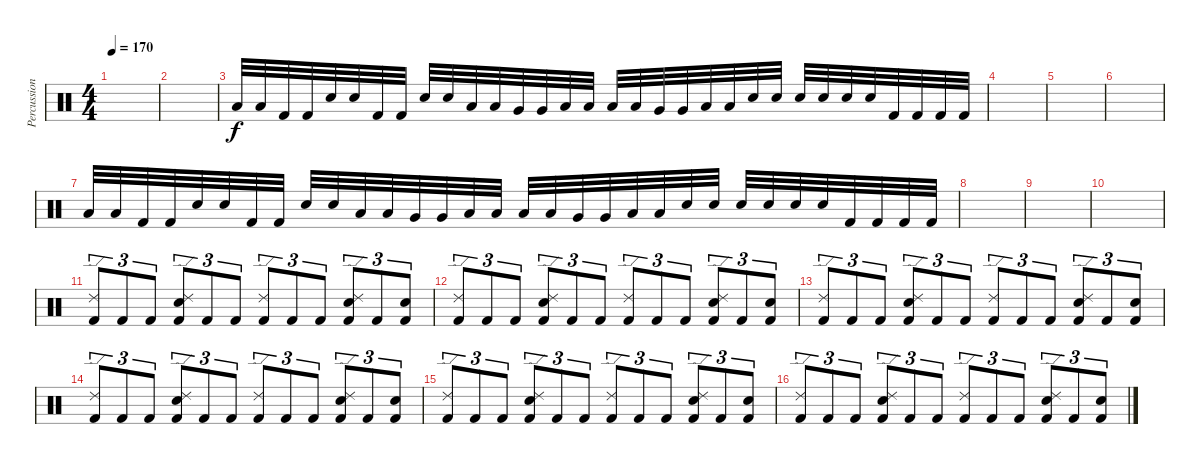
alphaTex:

\track ("Percussion" "Percussion") {instrument percussion}
\staff {score}
\articulation defaults
\ts (4 4)
\tempo 170
\clef neutral
\ks c
|
|
"Low Floor Tom (hit)".32 "Low Floor Tom (hit)".32 "Kick (hit) 2".32 "Kick (hit) 2".32 "Electric Snare (hit)".32 "Electric Snare (hit)".32 "Kick (hit) 2".32 "Kick (hit) 2".32 "Electric Snare (hit)".32 "Electric Snare (hit)".32 "Low Tom (hit)".32 "Low Tom (hit)".32 "Very Low Tom (hit)".32 "Very Low Tom (hit)".32 "Low Floor Tom (hit)".32 "Low Floor Tom (hit)".32 "Low Tom (hit)".32 "Low Tom (hit)".32 "Very Low Tom (hit)".32 "Very Low Tom (hit)".32 "Low Floor Tom (hit)".32 "Low Floor Tom (hit)".32 "Electric Snare (hit)".32 "Electric Snare (hit)".32 "Electric Snare (hit)".32 "Electric Snare (hit)".32 "Electric Snare (hit)".32 "Electric Snare (hit)".32 "Kick (hit) 2".32 "Kick (hit) 2".32 "Kick (hit) 2".32 "Kick (hit) 2".32 |
|
|
|
"Low Floor Tom (hit)".32 "Low Floor Tom (hit)".32 "Kick (hit) 2".32 "Kick (hit) 2".32 "Electric Snare (hit)".32 "Electric Snare (hit)".32 "Kick (hit) 2".32 "Kick (hit) 2".32 "Electric Snare (hit)".32 "Electric Snare (hit)".32 "Low Tom (hit)".32 "Low Tom (hit)".32 "Very Low Tom (hit)".32 "Very Low Tom (hit)".32 "Low Floor Tom (hit)".32 "Low Floor Tom (hit)".32 "Low Tom (hit)".32 "Low Tom (hit)".32 "Very Low Tom (hit)".32 "Very Low Tom (hit)".32 "Low Floor Tom (hit)".32 "Low Floor Tom (hit)".32 "Electric Snare (hit)".32 "Electric Snare (hit)".32 "Electric Snare (hit)".32 "Electric Snare (hit)".32 "Electric Snare (hit)".32 "Electric Snare (hit)".32 "Kick (hit) 2".32 "Kick (hit) 2".32 "Kick (hit) 2".32 "Kick (hit) 2".32 |
|
|
|
("Ride (edge) 2" "Kick (hit) 2").8{tu (3 2)} "Kick (hit) 2".8{tu (3 2)} "Kick (hit) 2".8{tu (3 2)} ("Ride (edge) 2" "Electric Snare (hit)" "Kick (hit) 2").8{tu (3 2)} "Kick (hit) 2".8{tu (3 2)} "Kick (hit) 2".8{tu (3 2)} ("Ride (edge) 2" "Kick (hit) 2").8{tu (3 2)} "Kick (hit) 2".8{tu (3 2)} "Kick (hit) 2".8{tu (3 2)} ("Ride (edge) 2" "Electric Snare (hit)" "Kick (hit) 2").8{tu (3 2)} "Kick (hit) 2".8{tu (3 2)} ("Electric Snare (hit)" "Kick (hit) 2").8{tu (3 2)} |
("Ride (edge) 2" "Kick (hit) 2").8{tu (3 2)} "Kick (hit) 2".8{tu (3 2)} "Kick (hit) 2".8{tu (3 2)} ("Ride (edge) 2" "Electric Snare (hit)" "Kick (hit) 2").8{tu (3 2)} "Kick (hit) 2".8{tu (3 2)} "Kick (hit) 2".8{tu (3 2)} ("Ride (edge) 2" "Kick (hit) 2").8{tu (3 2)} "Kick (hit) 2".8{tu (3 2)} "Kick (hit) 2".8{tu (3 2)} ("Ride (edge) 2" "Electric Snare (hit)" "Kick (hit) 2").8{tu (3 2)} "Kick (hit) 2".8{tu (3 2)} ("Electric Snare (hit)" "Kick (hit) 2").8{tu (3 2)} |
("Ride (edge) 2" "Kick (hit) 2").8{tu (3 2)} "Kick (hit) 2".8{tu (3 2)} "Kick (hit) 2".8{tu (3 2)} ("Ride (edge) 2" "Electric Snare (hit)" "Kick (hit) 2").8{tu (3 2)} "Kick (hit) 2".8{tu (3 2)} "Kick (hit) 2".8{tu (3 2)} ("Ride (edge) 2" "Kick (hit) 2").8{tu (3 2)} "Kick (hit) 2".8{tu (3 2)} "Kick (hit) 2".8{tu (3 2)} ("Ride (edge) 2" "Electric Snare (hit)" "Kick (hit) 2").8{tu (3 2)} "Kick (hit) 2".8{tu (3 2)} ("Electric Snare (hit)" "Kick (hit) 2").8{tu (3 2)} |
("Ride (edge) 2" "Kick (hit) 2").8{tu (3 2)} "Kick (hit) 2".8{tu (3 2)} "Kick (hit) 2".8{tu (3 2)} ("Ride (edge) 2" "Electric Snare (hit)" "Kick (hit) 2").8{tu (3 2)} "Kick (hit) 2".8{tu (3 2)} "Kick (hit) 2".8{tu (3 2)} ("Ride (edge) 2" "Kick (hit) 2").8{tu (3 2)} "Kick (hit) 2".8{tu (3 2)} "Kick (hit) 2".8{tu (3 2)} ("Ride (edge) 2" "Electric Snare (hit)" "Kick (hit) 2").8{tu (3 2)} "Kick (hit) 2".8{tu (3 2)} ("Electric Snare (hit)" "Kick (hit) 2").8{tu (3 2)} |
("Ride (edge) 2" "Kick (hit) 2").8{tu (3 2)} "Kick (hit) 2".8{tu (3 2)} "Kick (hit) 2".8{tu (3 2)} ("Ride (edge) 2" "Electric Snare (hit)" "Kick (hit) 2").8{tu (3 2)} "Kick (hit) 2".8{tu (3 2)} "Kick (hit) 2".8{tu (3 2)} ("Ride (edge) 2" "Kick (hit) 2").8{tu (3 2)} "Kick (hit) 2".8{tu (3 2)} "Kick (hit) 2".8{tu (3 2)} ("Ride (edge) 2" "Electric Snare (hit)" "Kick (hit) 2").8{tu (3 2)} "Kick (hit) 2".8{tu (3 2)} ("Electric Snare (hit)" "Kick (hit) 2").8{tu (3 2)} |
("Ride (edge) 2" "Kick (hit) 2").8{tu (3 2)} "Kick (hit) 2".8{tu (3 2)} "Kick (hit) 2".8{tu (3 2)} ("Ride (edge) 2" "Electric Snare (hit)" "Kick (hit) 2").8{tu (3 2)} "Kick (hit) 2".8{tu (3 2)} "Kick (hit) 2".8{tu (3 2)} ("Ride (edge) 2" "Kick (hit) 2").8{tu (3 2)} "Kick (hit) 2".8{tu (3 2)} "Kick (hit) 2".8{tu (3 2)} ("Ride (edge) 2" "Electric Snare (hit)" "Kick (hit) 2").8{tu (3 2)} "Kick (hit) 2".8{tu (3 2)} ("Electric Snare (hit)" "Kick (hit) 2").8{tu (3 2)}
